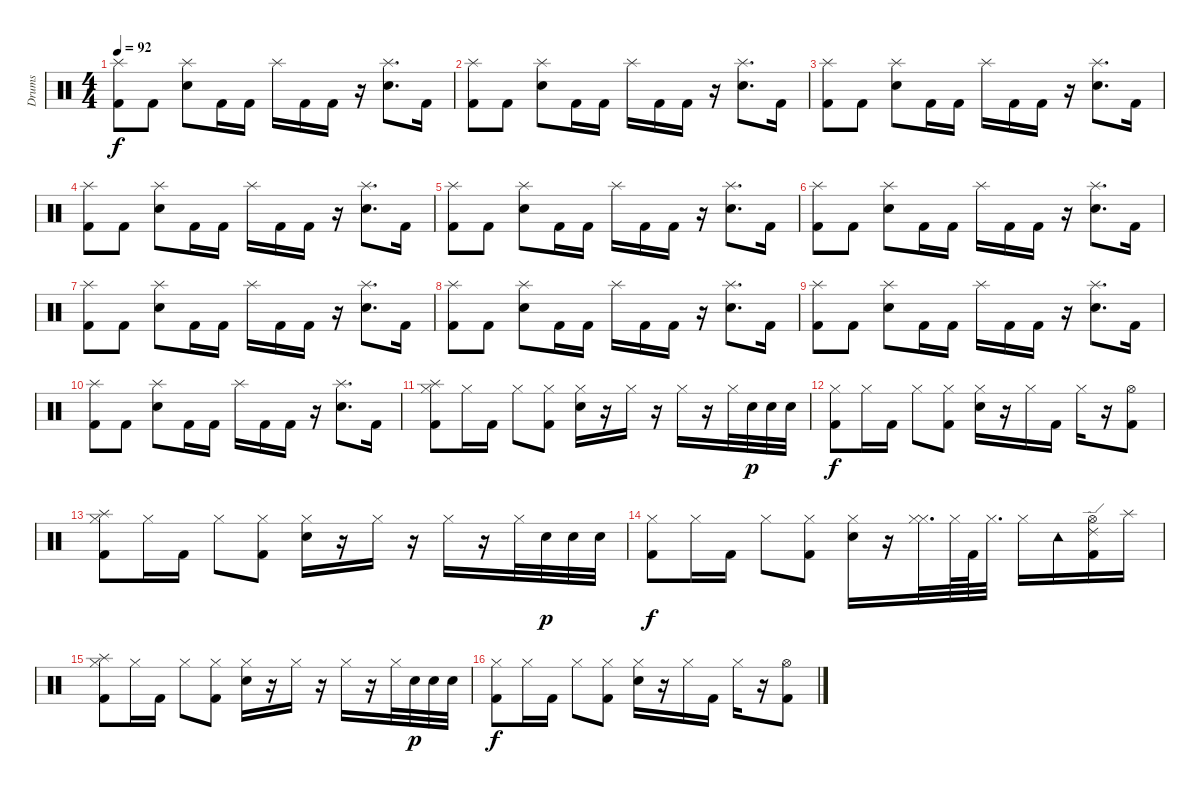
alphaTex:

\track ("Drums" "Drums") {instrument percussion}
\staff {score}
\articulation defaults
\ts (4 4)
\tempo 92
\clef neutral
\ks c
("Splash (hit)" "Kick (hit) 2").8{dy f} "Kick (hit) 2".8 ("Splash (hit)" "Electric Snare (hit)").8 "Kick (hit) 2".16 "Kick (hit) 2".16 "Splash (hit)".16 "Kick (hit) 2".16 "Kick (hit) 2".16 r.16 ("Splash (hit)" "Electric Snare (hit)").8{d} "Kick (hit) 2".16 |
("Splash (hit)" "Kick (hit) 2").8 "Kick (hit) 2".8 ("Splash (hit)" "Electric Snare (hit)").8 "Kick (hit) 2".16 "Kick (hit) 2".16 "Splash (hit)".16 "Kick (hit) 2".16 "Kick (hit) 2".16 r.16 ("Splash (hit)" "Electric Snare (hit)").8{d} "Kick (hit) 2".16 |
("Splash (hit)" "Kick (hit) 2").8 "Kick (hit) 2".8 ("Splash (hit)" "Electric Snare (hit)").8 "Kick (hit) 2".16 "Kick (hit) 2".16 "Splash (hit)".16 "Kick (hit) 2".16 "Kick (hit) 2".16 r.16 ("Splash (hit)" "Electric Snare (hit)").8{d} "Kick (hit) 2".16 |
("Splash (hit)" "Kick (hit) 2").8 "Kick (hit) 2".8 ("Splash (hit)" "Electric Snare (hit)").8 "Kick (hit) 2".16 "Kick (hit) 2".16 "Splash (hit)".16 "Kick (hit) 2".16 "Kick (hit) 2".16 r.16 ("Splash (hit)" "Electric Snare (hit)").8{d} "Kick (hit) 2".16 |
("Splash (hit)" "Kick (hit) 2").8 "Kick (hit) 2".8 ("Splash (hit)" "Electric Snare (hit)").8 "Kick (hit) 2".16 "Kick (hit) 2".16 "Splash (hit)".16 "Kick (hit) 2".16 "Kick (hit) 2".16 r.16 ("Splash (hit)" "Electric Snare (hit)").8{d} "Kick (hit) 2".16 |
("Splash (hit)" "Kick (hit) 2").8 "Kick (hit) 2".8 ("Splash (hit)" "Electric Snare (hit)").8 "Kick (hit) 2".16 "Kick (hit) 2".16 "Splash (hit)".16 "Kick (hit) 2".16 "Kick (hit) 2".16 r.16 ("Splash (hit)" "Electric Snare (hit)").8{d} "Kick (hit) 2".16 |
("Splash (hit)" "Kick (hit) 2").8 "Kick (hit) 2".8 ("Splash (hit)" "Electric Snare (hit)").8 "Kick (hit) 2".16 "Kick (hit) 2".16 "Splash (hit)".16 "Kick (hit) 2".16 "Kick (hit) 2".16 r.16 ("Splash (hit)" "Electric Snare (hit)").8{d} "Kick (hit) 2".16 |
("Splash (hit)" "Kick (hit) 2").8 "Kick (hit) 2".8 ("Splash (hit)" "Electric Snare (hit)").8 "Kick (hit) 2".16 "Kick (hit) 2".16 "Splash (hit)".16 "Kick (hit) 2".16 "Kick (hit) 2".16 r.16 ("Splash (hit)" "Electric Snare (hit)").8{d} "Kick (hit) 2".16 |
("Splash (hit)" "Kick (hit) 2").8 "Kick (hit) 2".8 ("Splash (hit)" "Electric Snare (hit)").8 "Kick (hit) 2".16 "Kick (hit) 2".16 "Splash (hit)".16 "Kick (hit) 2".16 "Kick (hit) 2".16 r.16 ("Splash (hit)" "Electric Snare (hit)").8{d} "Kick (hit) 2".16 |
("Splash (hit)" "Kick (hit) 2").8 "Kick (hit) 2".8 ("Splash (hit)" "Electric Snare (hit)").8 "Kick (hit) 2".16 "Kick (hit) 2".16 "Splash (hit)".16 "Kick (hit) 2".16 "Kick (hit) 2".16 r.16 ("Splash (hit)" "Electric Snare (hit)").8{d} "Kick (hit) 2".16 |
("Splash (hit)" "Hi-Hat (closed)" "Kick (hit) 2").8 "Hi-Hat (closed)".16 "Kick (hit) 2".16 "Hi-Hat (closed)".8 ("Hi-Hat (closed)" "Kick (hit) 2").8 ("Hi-Hat (closed)" "Electric Snare (hit)").16 r.16 "Hi-Hat (closed)".16 r.16 "Hi-Hat (closed)".16 r.16 "Hi-Hat (closed)".32 "Electric Snare (hit)".32{dy p} "Electric Snare (hit)".32 "Electric Snare (hit)".32 |
("Hi-Hat (closed)" "Kick (hit) 2").8{dy f} "Hi-Hat (closed)".16 "Kick (hit) 2".16 "Hi-Hat (closed)".8 ("Hi-Hat (closed)" "Kick (hit) 2").8 ("Hi-Hat (closed)" "Electric Snare (hit)").16 r.16 "Hi-Hat (closed)".16 "Kick (hit) 2".16 "Hi-Hat (closed)".16 r.16 ("Hi-Hat (open)" "Kick (hit) 2").8 |
("Splash (hit)" "Hi-Hat (closed)" "Kick (hit) 2").8 "Hi-Hat (closed)".16 "Kick (hit) 2".16 "Hi-Hat (closed)".8 ("Hi-Hat (closed)" "Kick (hit) 2").8 ("Hi-Hat (closed)" "Electric Snare (hit)").16 r.16 "Hi-Hat (closed)".16 r.16 "Hi-Hat (closed)".16 r.16 "Hi-Hat (closed)".32 "Electric Snare (hit)".32{dy p} "Electric Snare (hit)".32 "Electric Snare (hit)".32 |
("Hi-Hat (closed)" "Kick (hit) 2").8{dy f} "Hi-Hat (closed)".16 "Kick (hit) 2".16 "Hi-Hat (closed)".8 ("Hi-Hat (closed)" "Kick (hit) 2").8 ("Hi-Hat (closed)" "Electric Snare (hit)").16 r.16 ("Hi-Hat (closed)" "Hi-Hat (closed)").32{d} "Hi-Hat (closed)".64 "Kick (hit) 2".64 "Hi-Hat (closed)".32{d} "Hi-Hat (closed)".16 "Tambourine (hit)".16 ("Ride (edge) 2" "Hi-Hat (open)" "Kick (hit) 2").16 "Splash (hit)".16 |
("Splash (hit)" "Hi-Hat (closed)" "Kick (hit) 2").8 "Hi-Hat (closed)".16 "Kick (hit) 2".16 "Hi-Hat (closed)".8 ("Hi-Hat (closed)" "Kick (hit) 2").8 ("Hi-Hat (closed)" "Electric Snare (hit)").16 r.16 "Hi-Hat (closed)".16 r.16 "Hi-Hat (closed)".16 r.16 "Hi-Hat (closed)".32 "Electric Snare (hit)".32{dy p} "Electric Snare (hit)".32 "Electric Snare (hit)".32 |
("Hi-Hat (closed)" "Kick (hit) 2").8{dy f} "Hi-Hat (closed)".16 "Kick (hit) 2".16 "Hi-Hat (closed)".8 ("Hi-Hat (closed)" "Kick (hit) 2").8 ("Hi-Hat (closed)" "Electric Snare (hit)").16 r.16 "Hi-Hat (closed)".16 "Kick (hit) 2".16 "Hi-Hat (closed)".16 r.16 ("Hi-Hat (open)" "Kick (hit) 2").8
